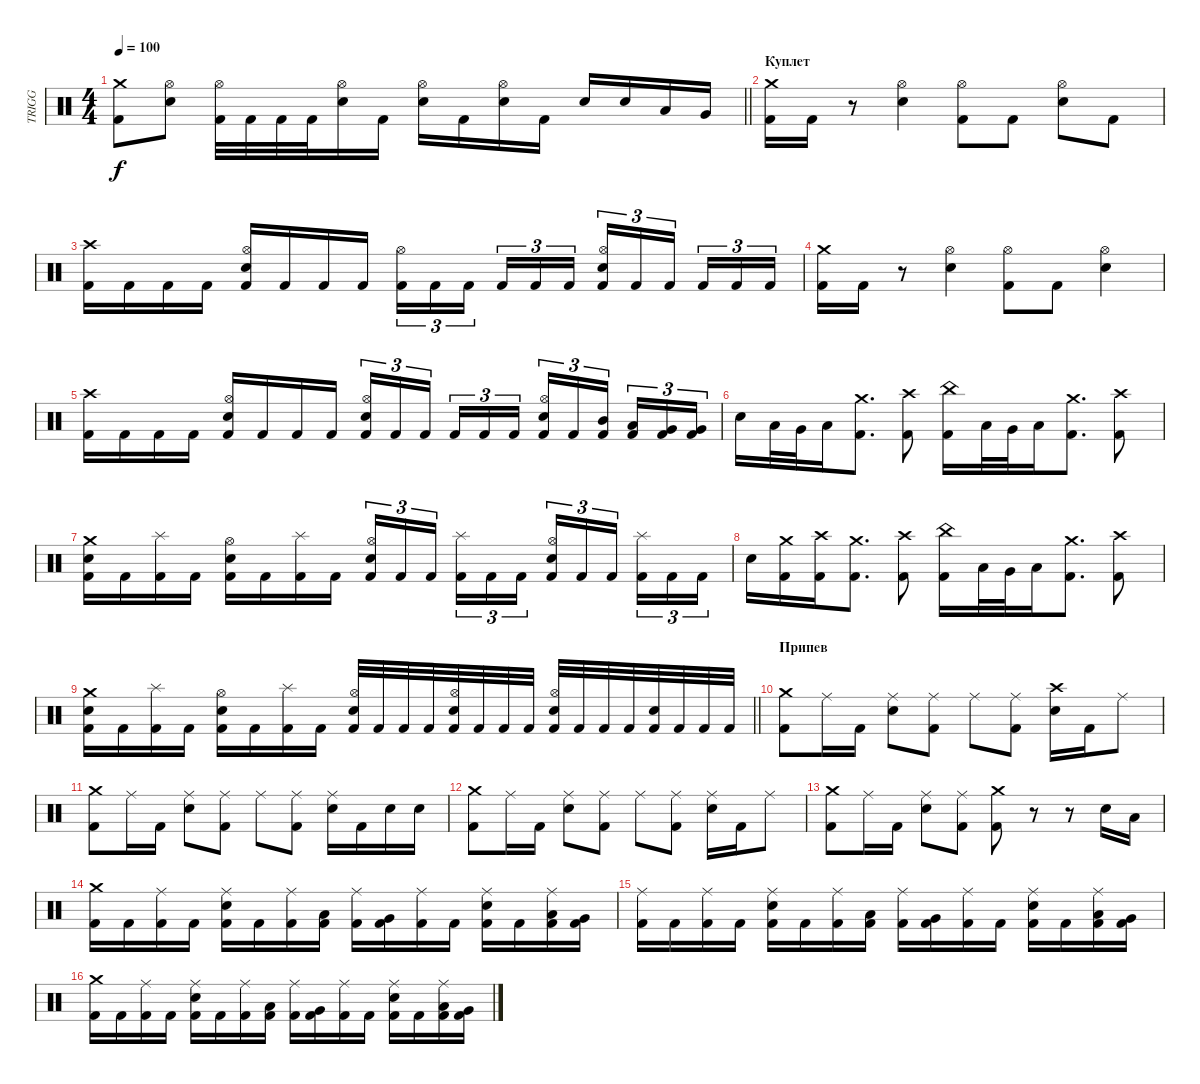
\track ("TRIGG" "TRIGG") {instrument percussion}
\staff {score}
\articulation defaults
\ts (4 4)
\tempo 100
\clef neutral
\barLineRight lightlight
\ks c
("Crash medium (hit)" "Kick (hit) 2").8{dy f} ("Hi-Hat (open)" "Electric Snare (hit)").8 ("Hi-Hat (open)" "Kick (hit) 2").32 "Kick (hit) 2".32 "Kick (hit) 2".32 "Kick (hit) 2".32 ("Hi-Hat (open)" "Electric Snare (hit)").16 "Kick (hit) 2".16 ("Hi-Hat (open)" "Electric Snare (hit)").16 "Kick (hit) 2".16 ("Hi-Hat (open)" "Electric Snare (hit)").16 "Kick (hit) 2".16 "Electric Snare (hit)".16 "Electric Snare (hit)".16 "Low Tom (hit)".16 "Very Low Tom (hit)".16 |
\section ("" "Куплет")
("Crash medium (hit)" "Kick (hit) 2").16 "Kick (hit) 2".16 r.8 ("Hi-Hat (open)" "Electric Snare (hit)").4 ("Hi-Hat (open)" "Kick (hit) 2").8 "Kick (hit) 2".8 ("Hi-Hat (open)" "Electric Snare (hit)").8 "Kick (hit) 2".8 |
("Crash high (hit)" "Kick (hit) 2").16 "Kick (hit) 2".16 "Kick (hit) 2".16 "Kick (hit) 2".16 ("Hi-Hat (open)" "Electric Snare (hit)" "Kick (hit) 2").16 "Kick (hit) 2".16 "Kick (hit) 2".16 "Kick (hit) 2".16 ("Hi-Hat (open)" "Kick (hit) 2").16{tu (3 2)} "Kick (hit) 2".16{tu (3 2)} "Kick (hit) 2".16{tu (3 2) beam splitsecondary} "Kick (hit) 2".16{tu (3 2)} "Kick (hit) 2".16{tu (3 2)} "Kick (hit) 2".16{tu (3 2)} ("Hi-Hat (open)" "Electric Snare (hit)" "Kick (hit) 2").16{tu (3 2)} "Kick (hit) 2".16{tu (3 2)} "Kick (hit) 2".16{tu (3 2) beam splitsecondary} "Kick (hit) 2".16{tu (3 2)} "Kick (hit) 2".16{tu (3 2)} "Kick (hit) 2".16{tu (3 2)} |
("Crash medium (hit)" "Kick (hit) 2").16 "Kick (hit) 2".16 r.8 ("Hi-Hat (open)" "Electric Snare (hit)").4 ("Hi-Hat (open)" "Kick (hit) 2").8 "Kick (hit) 2".8 ("Hi-Hat (open)" "Electric Snare (hit)").4 |
("Crash high (hit)" "Kick (hit) 2").16 "Kick (hit) 2".16 "Kick (hit) 2".16 "Kick (hit) 2".16 ("Hi-Hat (open)" "Electric Snare (hit)" "Kick (hit) 2").16 "Kick (hit) 2".16 "Kick (hit) 2".16 "Kick (hit) 2".16 ("Hi-Hat (open)" "Electric Snare (hit)" "Kick (hit) 2").16{tu (3 2)} "Kick (hit) 2".16{tu (3 2)} "Kick (hit) 2".16{tu (3 2) beam splitsecondary} "Kick (hit) 2".16{tu (3 2)} "Kick (hit) 2".16{tu (3 2)} "Kick (hit) 2".16{tu (3 2)} ("Hi-Hat (open)" "Electric Snare (hit)" "Kick (hit) 2").16{tu (3 2)} "Kick (hit) 2".16{tu (3 2)} ("Mid Tom (hit)" "Kick (hit) 2").16{tu (3 2) beam splitsecondary} ("Low Tom (hit)" "Kick (hit) 2").16{tu (3 2)} ("Very Low Tom (hit)" "Kick (hit) 2").16{tu (3 2)} ("Very Low Tom (hit)" "Kick (hit) 2").16{tu (3 2)} |
"Electric Snare (hit)".16 "Low Tom (hit)".32 "Very Low Tom (hit)".32 "Low Floor Tom (hit)".16 ("Crash medium (hit)" "Kick (hit) 2").8{d} ("Crash high (hit)" "Kick (hit) 2").8 ("China (hit)" "Kick (hit) 2").16 "Low Tom (hit)".32 "Very Low Tom (hit)".32 "Low Floor Tom (hit)".16 ("Crash medium (hit)" "Kick (hit) 2").8{d} ("Crash high (hit)" "Kick (hit) 2").8 |
("Crash medium (hit)" "Electric Snare (hit)" "Kick (hit) 2").16 "Kick (hit) 2".16 ("Splash (hit)" "Kick (hit) 2").16 "Kick (hit) 2".16 ("Hi-Hat (open)" "Electric Snare (hit)" "Kick (hit) 2").16 "Kick (hit) 2".16 ("Splash (hit)" "Kick (hit) 2").16 "Kick (hit) 2".16 ("Hi-Hat (open)" "Electric Snare (hit)" "Kick (hit) 2").16{tu (3 2)} "Kick (hit) 2".16{tu (3 2)} "Kick (hit) 2".16{tu (3 2) beam splitsecondary} ("Splash (hit)" "Kick (hit) 2").16{tu (3 2)} "Kick (hit) 2".16{tu (3 2)} "Kick (hit) 2".16{tu (3 2)} ("Hi-Hat (open)" "Electric Snare (hit)" "Kick (hit) 2").16{tu (3 2)} "Kick (hit) 2".16{tu (3 2)} "Kick (hit) 2".16{tu (3 2) beam splitsecondary} ("Splash (hit)" "Kick (hit) 2").16{tu (3 2)} "Kick (hit) 2".16{tu (3 2)} "Kick (hit) 2".16{tu (3 2)} |
"Electric Snare (hit)".16 ("Crash medium (hit)" "Kick (hit) 2").16 ("Crash high (hit)" "Kick (hit) 2").16 ("Crash medium (hit)" "Kick (hit) 2").8{d} ("Crash high (hit)" "Kick (hit) 2").8 ("China (hit)" "Kick (hit) 2").16 "Low Tom (hit)".32 "Very Low Tom (hit)".32 "Low Floor Tom (hit)".16 ("Crash medium (hit)" "Kick (hit) 2").8{d} ("Crash high (hit)" "Kick (hit) 2").8 |
\barLineRight lightlight
("Crash medium (hit)" "Electric Snare (hit)" "Kick (hit) 2").16 "Kick (hit) 2".16 ("Splash (hit)" "Kick (hit) 2").16 "Kick (hit) 2".16 ("Hi-Hat (open)" "Electric Snare (hit)" "Kick (hit) 2").16 "Kick (hit) 2".16 ("Splash (hit)" "Kick (hit) 2").16 "Kick (hit) 2".16 ("Hi-Hat (open)" "Electric Snare (hit)" "Kick (hit) 2").32 "Kick (hit) 2".32 "Kick (hit) 2".32 "Kick (hit) 2".32 ("Hi-Hat (open)" "Electric Snare (hit)" "Kick (hit) 2").32 "Kick (hit) 2".32 "Kick (hit) 2".32 "Kick (hit) 2".32 ("Hi-Hat (open)" "Electric Snare (hit)" "Kick (hit) 2").32 "Kick (hit) 2".32 "Kick (hit) 2".32 "Kick (hit) 2".32 ("Electric Snare (hit)" "Kick (hit) 2").32 "Kick (hit) 2".32 "Kick (hit) 2".32 "Kick (hit) 2".32 |
\section ("" "Припев")
("Crash medium (hit)" "Kick (hit) 2").8 "Ride (middle)".16 "Kick (hit) 2".16 ("Ride (middle)" "Electric Snare (hit)").8 ("Ride (middle)" "Kick (hit) 2").8 "Ride (middle)".8 ("Ride (middle)" "Kick (hit) 2").8 ("Crash high (hit)" "Electric Snare (hit)").16 "Kick (hit) 2".16 "Ride (middle)".8 |
("Crash medium (hit)" "Kick (hit) 2").8 "Ride (middle)".16 "Kick (hit) 2".16 ("Ride (middle)" "Electric Snare (hit)").8 ("Ride (middle)" "Kick (hit) 2").8 "Ride (middle)".8 ("Ride (middle)" "Kick (hit) 2").8 ("Ride (middle)" "Electric Snare (hit)").16 "Kick (hit) 2".16 "Electric Snare (hit)".16 "Electric Snare (hit)".16 |
("Crash medium (hit)" "Kick (hit) 2").8 "Ride (middle)".16 "Kick (hit) 2".16 ("Ride (middle)" "Electric Snare (hit)").8 ("Ride (middle)" "Kick (hit) 2").8 "Ride (middle)".8 ("Ride (middle)" "Kick (hit) 2").8 ("Ride (middle)" "Electric Snare (hit)").16 "Kick (hit) 2".16 "Ride (middle)".8 |
("Crash medium (hit)" "Kick (hit) 2").8 "Ride (middle)".16 "Kick (hit) 2".16 ("Ride (middle)" "Electric Snare (hit)").8 ("Ride (middle)" "Kick (hit) 2").8 ("Crash medium (hit)" "Kick (hit) 2").8 r.8 r.8 "Electric Snare (hit)".16 "Low Tom (hit)".16 |
("Crash medium (hit)" "Kick (hit) 2").16 "Kick (hit) 2".16 ("Ride (middle)" "Kick (hit) 2").16 "Kick (hit) 2".16 ("Ride (middle)" "Electric Snare (hit)" "Kick (hit) 2").16 "Kick (hit) 2".16 ("Ride (middle)" "Kick (hit) 2").16 ("Low Tom (hit)" "Kick (hit) 2").16 ("Ride (middle)" "Kick (hit) 2").16 ("Very Low Tom (hit)" "Kick (hit) 2").16 ("Ride (middle)" "Kick (hit) 2").16 "Kick (hit) 2".16 ("Ride (middle)" "Electric Snare (hit)" "Kick (hit) 2").16 "Kick (hit) 2".16 ("Ride (middle)" "Low Tom (hit)" "Kick (hit) 2").16 ("Very Low Tom (hit)" "Kick (hit) 2").16 |
("Ride (middle)" "Kick (hit) 2").16 "Kick (hit) 2".16 ("Ride (middle)" "Kick (hit) 2").16 "Kick (hit) 2".16 ("Ride (middle)" "Electric Snare (hit)" "Kick (hit) 2").16 "Kick (hit) 2".16 ("Ride (middle)" "Kick (hit) 2").16 ("Low Tom (hit)" "Kick (hit) 2").16 ("Ride (middle)" "Kick (hit) 2").16 ("Very Low Tom (hit)" "Kick (hit) 2").16 ("Ride (middle)" "Kick (hit) 2").16 "Kick (hit) 2".16 ("Ride (middle)" "Electric Snare (hit)" "Kick (hit) 2").16 "Kick (hit) 2".16 ("Ride (middle)" "Low Tom (hit)" "Kick (hit) 2").16 ("Very Low Tom (hit)" "Kick (hit) 2").16 |
("Crash medium (hit)" "Kick (hit) 2").16 "Kick (hit) 2".16 ("Ride (middle)" "Kick (hit) 2").16 "Kick (hit) 2".16 ("Ride (middle)" "Electric Snare (hit)" "Kick (hit) 2").16 "Kick (hit) 2".16 ("Ride (middle)" "Kick (hit) 2").16 ("Low Tom (hit)" "Kick (hit) 2").16 ("Ride (middle)" "Kick (hit) 2").16 ("Very Low Tom (hit)" "Kick (hit) 2").16 ("Ride (middle)" "Kick (hit) 2").16 "Kick (hit) 2".16 ("Ride (middle)" "Electric Snare (hit)" "Kick (hit) 2").16 "Kick (hit) 2".16 ("Ride (middle)" "Low Tom (hit)" "Kick (hit) 2").16 ("Very Low Tom (hit)" "Kick (hit) 2").16
